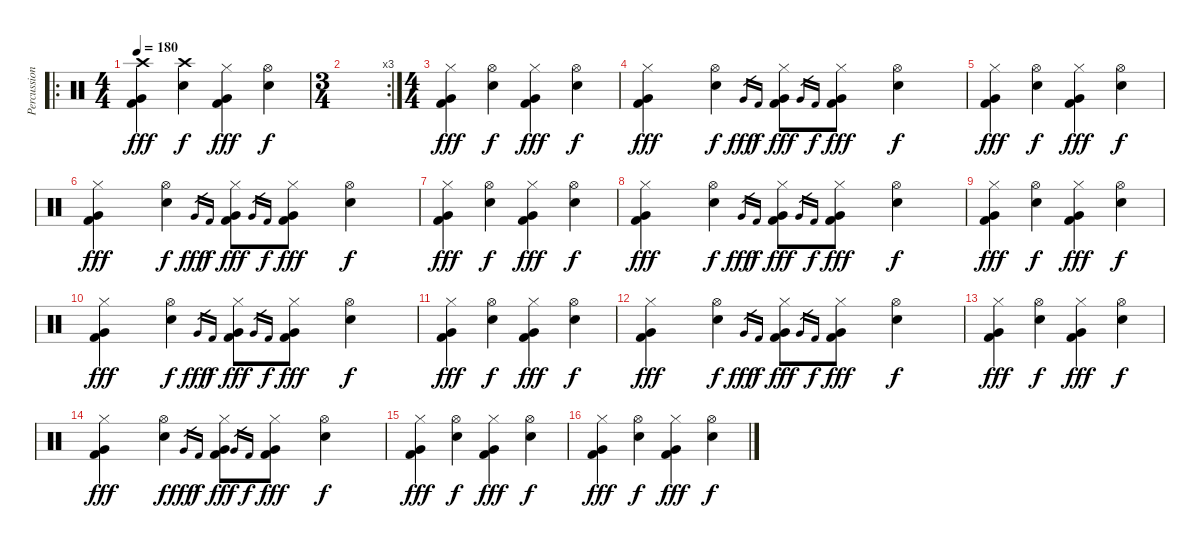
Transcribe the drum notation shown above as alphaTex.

\track ("Percussion" "Percussion") {instrument percussion}
\staff {score}
\articulation defaults
\ro
\ts (4 4)
\tempo 180
\clef neutral
\ks c
("Crash high (hit)" "Very Low Tom (hit)" "Kick (hit) 2").4{dy fff} ("Crash high (hit)" "Electric Snare (hit)").4{dy f} ("Hi-Hat (closed)" "Very Low Tom (hit)" "Kick (hit) 2").4{dy fff} ("Hi-Hat (open)" "Electric Snare (hit)").4{dy f} |
\rc 3
\ts (3 4)
|
\ts (4 4)
("Hi-Hat (closed)" "Very Low Tom (hit)" "Kick (hit) 2").4{dy fff} ("Hi-Hat (open)" "Electric Snare (hit)").4{dy f} ("Hi-Hat (closed)" "Very Low Tom (hit)" "Kick (hit) 2").4{dy fff} ("Hi-Hat (open)" "Electric Snare (hit)").4{dy f} |
("Hi-Hat (closed)" "Very Low Tom (hit)" "Kick (hit) 2").4{dy fff} ("Hi-Hat (open)" "Electric Snare (hit)").4{dy f} "Very Low Tom (hit)".16{gr dy fff} "Kick (hit) 2".16{gr dy f} ("Hi-Hat (closed)" "Very Low Tom (hit)" "Kick (hit) 2").8{dy fff} "Very Low Tom (hit)".16{gr} "Kick (hit) 2".16{gr dy f} ("Hi-Hat (closed)" "Very Low Tom (hit)" "Kick (hit) 2").8{dy fff} ("Hi-Hat (open)" "Electric Snare (hit)").4{dy f} |
("Hi-Hat (closed)" "Very Low Tom (hit)" "Kick (hit) 2").4{dy fff} ("Hi-Hat (open)" "Electric Snare (hit)").4{dy f} ("Hi-Hat (closed)" "Very Low Tom (hit)" "Kick (hit) 2").4{dy fff} ("Hi-Hat (open)" "Electric Snare (hit)").4{dy f} |
("Hi-Hat (closed)" "Very Low Tom (hit)" "Kick (hit) 2").4{dy fff} ("Hi-Hat (open)" "Electric Snare (hit)").4{dy f} "Very Low Tom (hit)".16{gr dy fff} "Kick (hit) 2".16{gr dy f} ("Hi-Hat (closed)" "Very Low Tom (hit)" "Kick (hit) 2").8{dy fff} "Very Low Tom (hit)".16{gr} "Kick (hit) 2".16{gr dy f} ("Hi-Hat (closed)" "Very Low Tom (hit)" "Kick (hit) 2").8{dy fff} ("Hi-Hat (open)" "Electric Snare (hit)").4{dy f} |
("Hi-Hat (closed)" "Very Low Tom (hit)" "Kick (hit) 2").4{dy fff} ("Hi-Hat (open)" "Electric Snare (hit)").4{dy f} ("Hi-Hat (closed)" "Very Low Tom (hit)" "Kick (hit) 2").4{dy fff} ("Hi-Hat (open)" "Electric Snare (hit)").4{dy f} |
("Hi-Hat (closed)" "Very Low Tom (hit)" "Kick (hit) 2").4{dy fff} ("Hi-Hat (open)" "Electric Snare (hit)").4{dy f} "Very Low Tom (hit)".16{gr dy fff} "Kick (hit) 2".16{gr dy f} ("Hi-Hat (closed)" "Very Low Tom (hit)" "Kick (hit) 2").8{dy fff} "Very Low Tom (hit)".16{gr} "Kick (hit) 2".16{gr dy f} ("Hi-Hat (closed)" "Very Low Tom (hit)" "Kick (hit) 2").8{dy fff} ("Hi-Hat (open)" "Electric Snare (hit)").4{dy f} |
("Hi-Hat (closed)" "Very Low Tom (hit)" "Kick (hit) 2").4{dy fff} ("Hi-Hat (open)" "Electric Snare (hit)").4{dy f} ("Hi-Hat (closed)" "Very Low Tom (hit)" "Kick (hit) 2").4{dy fff} ("Hi-Hat (open)" "Electric Snare (hit)").4{dy f} |
("Hi-Hat (closed)" "Very Low Tom (hit)" "Kick (hit) 2").4{dy fff} ("Hi-Hat (open)" "Electric Snare (hit)").4{dy f} "Very Low Tom (hit)".16{gr dy fff} "Kick (hit) 2".16{gr dy f} ("Hi-Hat (closed)" "Very Low Tom (hit)" "Kick (hit) 2").8{dy fff} "Very Low Tom (hit)".16{gr} "Kick (hit) 2".16{gr dy f} ("Hi-Hat (closed)" "Very Low Tom (hit)" "Kick (hit) 2").8{dy fff} ("Hi-Hat (open)" "Electric Snare (hit)").4{dy f} |
("Hi-Hat (closed)" "Very Low Tom (hit)" "Kick (hit) 2").4{dy fff} ("Hi-Hat (open)" "Electric Snare (hit)").4{dy f} ("Hi-Hat (closed)" "Very Low Tom (hit)" "Kick (hit) 2").4{dy fff} ("Hi-Hat (open)" "Electric Snare (hit)").4{dy f} |
("Hi-Hat (closed)" "Very Low Tom (hit)" "Kick (hit) 2").4{dy fff} ("Hi-Hat (open)" "Electric Snare (hit)").4{dy f} "Very Low Tom (hit)".16{gr dy fff} "Kick (hit) 2".16{gr dy f} ("Hi-Hat (closed)" "Very Low Tom (hit)" "Kick (hit) 2").8{dy fff} "Very Low Tom (hit)".16{gr} "Kick (hit) 2".16{gr dy f} ("Hi-Hat (closed)" "Very Low Tom (hit)" "Kick (hit) 2").8{dy fff} ("Hi-Hat (open)" "Electric Snare (hit)").4{dy f} |
("Hi-Hat (closed)" "Very Low Tom (hit)" "Kick (hit) 2").4{dy fff} ("Hi-Hat (open)" "Electric Snare (hit)").4{dy f} ("Hi-Hat (closed)" "Very Low Tom (hit)" "Kick (hit) 2").4{dy fff} ("Hi-Hat (open)" "Electric Snare (hit)").4{dy f} |
("Hi-Hat (closed)" "Very Low Tom (hit)" "Kick (hit) 2").4{dy fff} ("Hi-Hat (open)" "Electric Snare (hit)").4{dy f} "Very Low Tom (hit)".16{gr dy fff} "Kick (hit) 2".16{gr dy f} ("Hi-Hat (closed)" "Very Low Tom (hit)" "Kick (hit) 2").8{dy fff} "Very Low Tom (hit)".16{gr} "Kick (hit) 2".16{gr dy f} ("Hi-Hat (closed)" "Very Low Tom (hit)" "Kick (hit) 2").8{dy fff} ("Hi-Hat (open)" "Electric Snare (hit)").4{dy f} |
("Hi-Hat (closed)" "Very Low Tom (hit)" "Kick (hit) 2").4{dy fff} ("Hi-Hat (open)" "Electric Snare (hit)").4{dy f} ("Hi-Hat (closed)" "Very Low Tom (hit)" "Kick (hit) 2").4{dy fff} ("Hi-Hat (open)" "Electric Snare (hit)").4{dy f} |
("Hi-Hat (closed)" "Very Low Tom (hit)" "Kick (hit) 2").4{dy fff} ("Hi-Hat (open)" "Electric Snare (hit)").4{dy f} ("Hi-Hat (closed)" "Very Low Tom (hit)" "Kick (hit) 2").4{dy fff} ("Hi-Hat (open)" "Electric Snare (hit)").4{dy f}
